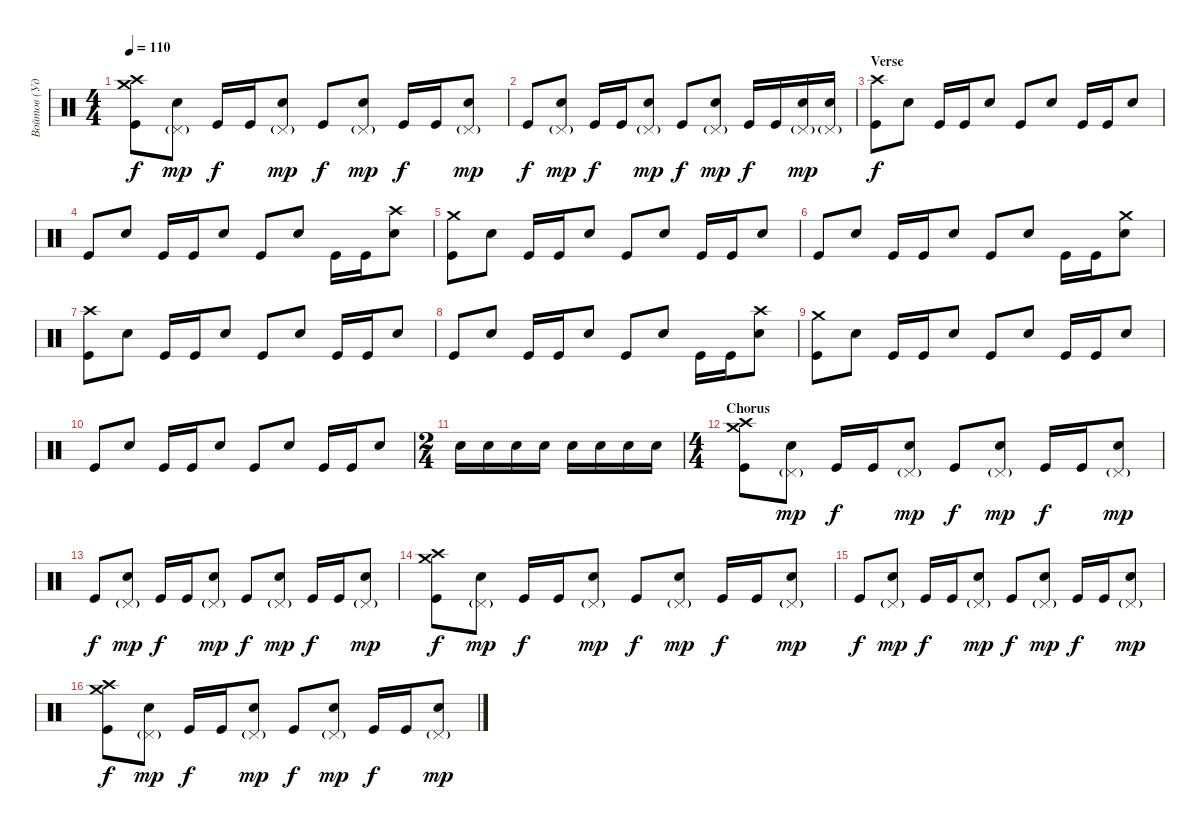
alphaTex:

\track ("Войтов (Ударные)" "Войтов (Уд") {instrument percussion}
\staff {score}
\articulation defaults
\ts (4 4)
\tempo 110
\clef neutral
\ks c
("Crash medium (hit)" "Crash high (hit)" "Kick (hit)").8{dy f} ("Pedal Hi-Hat (hit)"{g} "Electric Snare (hit)").8{dy mp} "Kick (hit)".16{dy f} "Kick (hit)".16 ("Pedal Hi-Hat (hit)"{g} "Electric Snare (hit)").8{dy mp} "Kick (hit)".8{dy f} ("Pedal Hi-Hat (hit)"{g} "Electric Snare (hit)").8{dy mp} "Kick (hit)".16{dy f} "Kick (hit)".16 ("Pedal Hi-Hat (hit)"{g} "Electric Snare (hit)").8{dy mp} |
"Kick (hit)".8{dy f} ("Pedal Hi-Hat (hit)"{g} "Electric Snare (hit)").8{dy mp} "Kick (hit)".16{dy f} "Kick (hit)".16 ("Pedal Hi-Hat (hit)"{g} "Electric Snare (hit)").8{dy mp} "Kick (hit)".8{dy f} ("Pedal Hi-Hat (hit)"{g} "Electric Snare (hit)").8{dy mp} "Kick (hit)".16{dy f} "Kick (hit)".16 ("Pedal Hi-Hat (hit)"{g} "Electric Snare (hit)").16{dy mp} ("Pedal Hi-Hat (hit)"{g} "Electric Snare (hit)").16 |
\section ("" "Verse")
("Crash high (hit)" "Kick (hit)").8{dy f} "Electric Snare (hit)".8 "Kick (hit)".16 "Kick (hit)".16 "Electric Snare (hit)".8 "Kick (hit)".8 "Electric Snare (hit)".8 "Kick (hit)".16 "Kick (hit)".16 "Electric Snare (hit)".8 |
"Kick (hit)".8 "Electric Snare (hit)".8 "Kick (hit)".16 "Kick (hit)".16 "Electric Snare (hit)".8 "Kick (hit)".8 "Electric Snare (hit)".8 "Kick (hit)".16 "Kick (hit)".16 ("Crash high (hit)" "Electric Snare (hit)").8 |
("Crash medium (hit)" "Kick (hit)").8 "Electric Snare (hit)".8 "Kick (hit)".16 "Kick (hit)".16 "Electric Snare (hit)".8 "Kick (hit)".8 "Electric Snare (hit)".8 "Kick (hit)".16 "Kick (hit)".16 "Electric Snare (hit)".8 |
"Kick (hit)".8 "Electric Snare (hit)".8 "Kick (hit)".16 "Kick (hit)".16 "Electric Snare (hit)".8 "Kick (hit)".8 "Electric Snare (hit)".8 "Kick (hit)".16 "Kick (hit)".16 ("Crash medium (hit)" "Electric Snare (hit)").8 |
("Crash high (hit)" "Kick (hit)").8 "Electric Snare (hit)".8 "Kick (hit)".16 "Kick (hit)".16 "Electric Snare (hit)".8 "Kick (hit)".8 "Electric Snare (hit)".8 "Kick (hit)".16 "Kick (hit)".16 "Electric Snare (hit)".8 |
"Kick (hit)".8 "Electric Snare (hit)".8 "Kick (hit)".16 "Kick (hit)".16 "Electric Snare (hit)".8 "Kick (hit)".8 "Electric Snare (hit)".8 "Kick (hit)".16 "Kick (hit)".16 ("Crash high (hit)" "Electric Snare (hit)").8 |
("Crash medium (hit)" "Kick (hit)").8 "Electric Snare (hit)".8 "Kick (hit)".16 "Kick (hit)".16 "Electric Snare (hit)".8 "Kick (hit)".8 "Electric Snare (hit)".8 "Kick (hit)".16 "Kick (hit)".16 "Electric Snare (hit)".8 |
"Kick (hit)".8 "Electric Snare (hit)".8 "Kick (hit)".16 "Kick (hit)".16 "Electric Snare (hit)".8 "Kick (hit)".8 "Electric Snare (hit)".8 "Kick (hit)".16 "Kick (hit)".16 "Electric Snare (hit)".8 |
\ts (2 4)
"Electric Snare (hit)".16 "Electric Snare (hit)".16 "Electric Snare (hit)".16 "Electric Snare (hit)".16 "Electric Snare (hit)".16 "Electric Snare (hit)".16 "Electric Snare (hit)".16 "Electric Snare (hit)".16 |
\ts (4 4)
\section ("" "Chorus")
("Crash medium (hit)" "Crash high (hit)" "Kick (hit)").8 ("Pedal Hi-Hat (hit)"{g} "Electric Snare (hit)").8{dy mp} "Kick (hit)".16{dy f} "Kick (hit)".16 ("Pedal Hi-Hat (hit)"{g} "Electric Snare (hit)").8{dy mp} "Kick (hit)".8{dy f} ("Pedal Hi-Hat (hit)"{g} "Electric Snare (hit)").8{dy mp} "Kick (hit)".16{dy f} "Kick (hit)".16 ("Pedal Hi-Hat (hit)"{g} "Electric Snare (hit)").8{dy mp} |
"Kick (hit)".8{dy f} ("Pedal Hi-Hat (hit)"{g} "Electric Snare (hit)").8{dy mp} "Kick (hit)".16{dy f} "Kick (hit)".16 ("Pedal Hi-Hat (hit)"{g} "Electric Snare (hit)").8{dy mp} "Kick (hit)".8{dy f} ("Pedal Hi-Hat (hit)"{g} "Electric Snare (hit)").8{dy mp} "Kick (hit)".16{dy f} "Kick (hit)".16 ("Pedal Hi-Hat (hit)"{g} "Electric Snare (hit)").8{dy mp} |
("Crash medium (hit)" "Crash high (hit)" "Kick (hit)").8{dy f} ("Pedal Hi-Hat (hit)"{g} "Electric Snare (hit)").8{dy mp} "Kick (hit)".16{dy f} "Kick (hit)".16 ("Pedal Hi-Hat (hit)"{g} "Electric Snare (hit)").8{dy mp} "Kick (hit)".8{dy f} ("Pedal Hi-Hat (hit)"{g} "Electric Snare (hit)").8{dy mp} "Kick (hit)".16{dy f} "Kick (hit)".16 ("Pedal Hi-Hat (hit)"{g} "Electric Snare (hit)").8{dy mp} |
"Kick (hit)".8{dy f} ("Pedal Hi-Hat (hit)"{g} "Electric Snare (hit)").8{dy mp} "Kick (hit)".16{dy f} "Kick (hit)".16 ("Pedal Hi-Hat (hit)"{g} "Electric Snare (hit)").8{dy mp} "Kick (hit)".8{dy f} ("Pedal Hi-Hat (hit)"{g} "Electric Snare (hit)").8{dy mp} "Kick (hit)".16{dy f} "Kick (hit)".16 ("Pedal Hi-Hat (hit)"{g} "Electric Snare (hit)").8{dy mp} |
("Crash medium (hit)" "Crash high (hit)" "Kick (hit)").8{dy f} ("Pedal Hi-Hat (hit)"{g} "Electric Snare (hit)").8{dy mp} "Kick (hit)".16{dy f} "Kick (hit)".16 ("Pedal Hi-Hat (hit)"{g} "Electric Snare (hit)").8{dy mp} "Kick (hit)".8{dy f} ("Pedal Hi-Hat (hit)"{g} "Electric Snare (hit)").8{dy mp} "Kick (hit)".16{dy f} "Kick (hit)".16 ("Pedal Hi-Hat (hit)"{g} "Electric Snare (hit)").8{dy mp}
